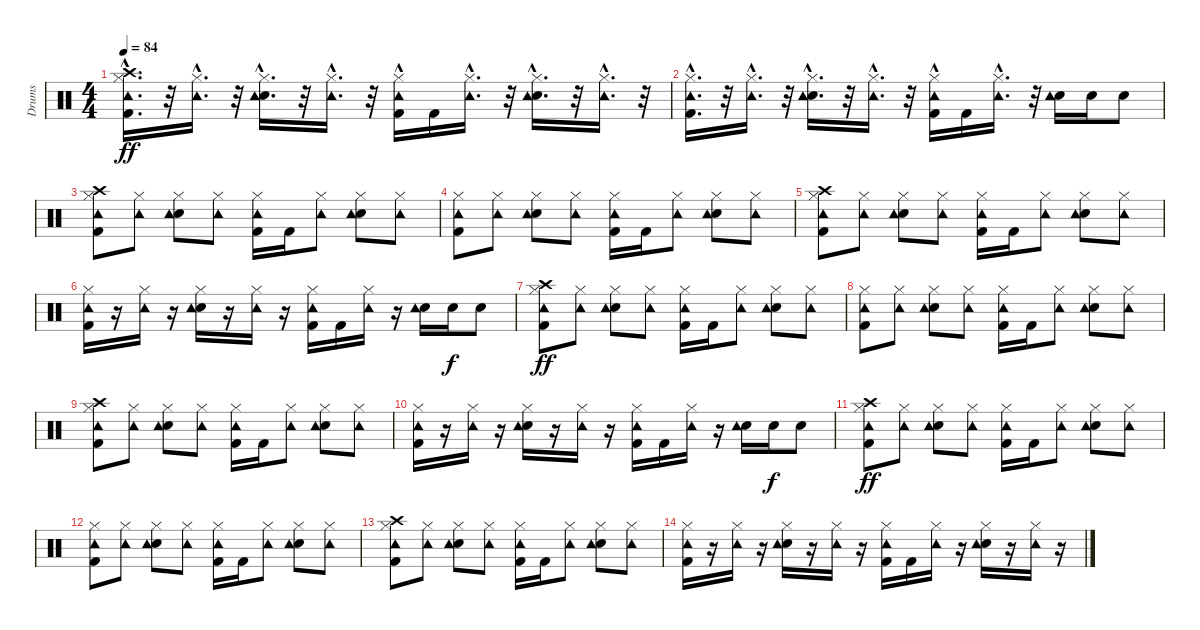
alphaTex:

\track ("Drums" "Drums") {instrument percussion}
\staff {score}
\articulation defaults
\ts (4 4)
\tempo 84
\clef neutral
\ks c
("Kick (hit) 2" "Hi-Hat (closed)" "Crash high (hit)" "Tambourine (hit)"{hac}).16{d dy ff} r.32 ("Hi-Hat (closed)" "Tambourine (hit)"{hac}).16{d} r.32 ("Snare (hit) 2" "Hi-Hat (closed)" "Tambourine (hit)"{hac}).16{d} r.32 ("Hi-Hat (closed)" "Tambourine (hit)"{hac}).16{d} r.32 ("Kick (hit) 2" "Hi-Hat (closed)" "Tambourine (hit)"{hac}).16 "Kick (hit) 2".16 ("Hi-Hat (closed)" "Tambourine (hit)"{hac}).16{d} r.32 ("Snare (hit) 2" "Hi-Hat (closed)" "Tambourine (hit)"{hac}).16{d} r.32 ("Hi-Hat (closed)" "Tambourine (hit)"{hac}).16{d} r.32 |
("Kick (hit) 2" "Hi-Hat (closed)" "Tambourine (hit)"{hac}).16{d} r.32 ("Hi-Hat (closed)" "Tambourine (hit)"{hac}).16{d} r.32 ("Snare (hit) 2" "Hi-Hat (closed)" "Tambourine (hit)"{hac}).16{d} r.32 ("Hi-Hat (closed)" "Tambourine (hit)"{hac}).16{d} r.32 ("Kick (hit) 2" "Hi-Hat (closed)" "Tambourine (hit)"{hac}).16 "Kick (hit) 2".16 ("Hi-Hat (closed)" "Tambourine (hit)"{hac}).16{d} r.32 ("Snare (hit) 2" "Tambourine (hit)").16 "Snare (hit) 2".16 "Snare (hit) 2".8 |
("Kick (hit) 2" "Hi-Hat (closed)" "Crash high (hit)" "Tambourine (hit)").8 ("Hi-Hat (closed)" "Tambourine (hit)").8 ("Snare (hit) 2" "Hi-Hat (closed)" "Tambourine (hit)").8 ("Hi-Hat (closed)" "Tambourine (hit)").8 ("Kick (hit) 2" "Hi-Hat (closed)" "Tambourine (hit)").16 "Kick (hit) 2".16 ("Hi-Hat (closed)" "Tambourine (hit)").8 ("Snare (hit) 2" "Hi-Hat (closed)" "Tambourine (hit)").8 ("Tambourine (hit)" "Hi-Hat (closed)").8 |
("Kick (hit) 2" "Hi-Hat (closed)" "Tambourine (hit)").8 ("Hi-Hat (closed)" "Tambourine (hit)").8 ("Snare (hit) 2" "Hi-Hat (closed)" "Tambourine (hit)").8 ("Hi-Hat (closed)" "Tambourine (hit)").8 ("Kick (hit) 2" "Hi-Hat (closed)" "Tambourine (hit)").16 "Kick (hit) 2".16 ("Hi-Hat (closed)" "Tambourine (hit)").8 ("Snare (hit) 2" "Hi-Hat (closed)" "Tambourine (hit)").8 ("Tambourine (hit)" "Hi-Hat (closed)").8 |
("Kick (hit) 2" "Hi-Hat (closed)" "Crash high (hit)" "Tambourine (hit)").8{volume 12} ("Hi-Hat (closed)" "Tambourine (hit)").8{volume 12} ("Snare (hit) 2" "Hi-Hat (closed)" "Tambourine (hit)").8{volume 12} ("Hi-Hat (closed)" "Tambourine (hit)").8{volume 12} ("Kick (hit) 2" "Hi-Hat (closed)" "Tambourine (hit)").16{volume 12} "Kick (hit) 2".16{volume 11} ("Hi-Hat (closed)" "Tambourine (hit)").8{volume 11} ("Snare (hit) 2" "Hi-Hat (closed)" "Tambourine (hit)").8{volume 11} ("Tambourine (hit)" "Hi-Hat (closed)").8{volume 11} |
("Kick (hit) 2" "Hi-Hat (closed)" "Tambourine (hit)").16{volume 11} r.16 ("Hi-Hat (closed)" "Tambourine (hit)").16{volume 11} r.16 ("Snare (hit) 2" "Hi-Hat (closed)" "Tambourine (hit)").16{volume 10} r.16 ("Hi-Hat (closed)" "Tambourine (hit)").16{volume 10} r.16 ("Kick (hit) 2" "Hi-Hat (closed)" "Tambourine (hit)").16{volume 10} "Kick (hit) 2".16{volume 10} ("Hi-Hat (closed)" "Tambourine (hit)").16 r.16 ("Snare (hit) 2" "Tambourine (hit)").16{volume 10} "Snare (hit) 2".16{dy f volume 10} "Snare (hit) 2".8{volume 10} |
("Kick (hit) 2" "Hi-Hat (closed)" "Crash high (hit)" "Tambourine (hit)").8{dy ff volume 10} ("Hi-Hat (closed)" "Tambourine (hit)").8{volume 10} ("Snare (hit) 2" "Hi-Hat (closed)" "Tambourine (hit)").8{volume 9} ("Hi-Hat (closed)" "Tambourine (hit)").8{volume 9} ("Kick (hit) 2" "Hi-Hat (closed)" "Tambourine (hit)").16{volume 9} "Kick (hit) 2".16 ("Hi-Hat (closed)" "Tambourine (hit)").8{volume 9} ("Snare (hit) 2" "Hi-Hat (closed)" "Tambourine (hit)").8{volume 9} ("Tambourine (hit)" "Hi-Hat (closed)").8{volume 9} |
("Kick (hit) 2" "Hi-Hat (closed)" "Tambourine (hit)").8{volume 8} ("Hi-Hat (closed)" "Tambourine (hit)").8{volume 8} ("Snare (hit) 2" "Hi-Hat (closed)" "Tambourine (hit)").8{volume 8} ("Hi-Hat (closed)" "Tambourine (hit)").8{volume 8} ("Kick (hit) 2" "Hi-Hat (closed)" "Tambourine (hit)").16{volume 8} "Kick (hit) 2".16{volume 8} ("Hi-Hat (closed)" "Tambourine (hit)").8 ("Snare (hit) 2" "Hi-Hat (closed)" "Tambourine (hit)").8{volume 8} ("Tambourine (hit)" "Hi-Hat (closed)").8{volume 7} |
("Kick (hit) 2" "Hi-Hat (closed)" "Crash high (hit)" "Tambourine (hit)").8{volume 7} ("Hi-Hat (closed)" "Tambourine (hit)").8{volume 7} ("Snare (hit) 2" "Hi-Hat (closed)" "Tambourine (hit)").8{volume 7} ("Hi-Hat (closed)" "Tambourine (hit)").8{volume 7} ("Kick (hit) 2" "Hi-Hat (closed)" "Tambourine (hit)").16{volume 7} "Kick (hit) 2".16 ("Hi-Hat (closed)" "Tambourine (hit)").8{volume 6} ("Snare (hit) 2" "Hi-Hat (closed)" "Tambourine (hit)").8{volume 6} ("Tambourine (hit)" "Hi-Hat (closed)").8{volume 6} |
("Kick (hit) 2" "Hi-Hat (closed)" "Tambourine (hit)").16{volume 6} r.16 ("Hi-Hat (closed)" "Tambourine (hit)").16{volume 6} r.16 ("Snare (hit) 2" "Hi-Hat (closed)" "Tambourine (hit)").16{volume 6} r.16 ("Hi-Hat (closed)" "Tambourine (hit)").16{volume 6} r.16 ("Kick (hit) 2" "Hi-Hat (closed)" "Tambourine (hit)").16{volume 6} "Kick (hit) 2".16{volume 5} ("Hi-Hat (closed)" "Tambourine (hit)").16{volume 5} r.16 ("Snare (hit) 2" "Tambourine (hit)").16{volume 5} "Snare (hit) 2".16{dy f} "Snare (hit) 2".8{volume 5} |
("Kick (hit) 2" "Hi-Hat (closed)" "Crash high (hit)" "Tambourine (hit)").8{dy ff volume 5} ("Hi-Hat (closed)" "Tambourine (hit)").8{volume 5} ("Snare (hit) 2" "Hi-Hat (closed)" "Tambourine (hit)").8{volume 4} ("Hi-Hat (closed)" "Tambourine (hit)").8{volume 4} ("Kick (hit) 2" "Hi-Hat (closed)" "Tambourine (hit)").16{volume 4} "Kick (hit) 2".16{volume 4} ("Hi-Hat (closed)" "Tambourine (hit)").8 ("Snare (hit) 2" "Hi-Hat (closed)" "Tambourine (hit)").8{volume 4} ("Tambourine (hit)" "Hi-Hat (closed)").8{volume 4} |
("Kick (hit) 2" "Hi-Hat (closed)" "Tambourine (hit)").8{volume 4} ("Hi-Hat (closed)" "Tambourine (hit)").8{volume 4} ("Snare (hit) 2" "Hi-Hat (closed)" "Tambourine (hit)").8{volume 3} ("Hi-Hat (closed)" "Tambourine (hit)").8{volume 3} ("Kick (hit) 2" "Hi-Hat (closed)" "Tambourine (hit)").16{volume 3} "Kick (hit) 2".16 ("Hi-Hat (closed)" "Tambourine (hit)").8{volume 3} ("Snare (hit) 2" "Hi-Hat (closed)" "Tambourine (hit)").8{volume 3} ("Tambourine (hit)" "Hi-Hat (closed)").8{volume 3} |
("Kick (hit) 2" "Hi-Hat (closed)" "Crash high (hit)" "Tambourine (hit)").8{volume 2} ("Hi-Hat (closed)" "Tambourine (hit)").8{volume 2} ("Snare (hit) 2" "Hi-Hat (closed)" "Tambourine (hit)").8{volume 2} ("Hi-Hat (closed)" "Tambourine (hit)").8{volume 2} ("Kick (hit) 2" "Hi-Hat (closed)" "Tambourine (hit)").16{volume 2} "Kick (hit) 2".16{volume 2} ("Hi-Hat (closed)" "Tambourine (hit)").8 ("Snare (hit) 2" "Hi-Hat (closed)" "Tambourine (hit)").8{volume 2} ("Tambourine (hit)" "Hi-Hat (closed)").8{volume 1} |
("Kick (hit) 2" "Hi-Hat (closed)" "Tambourine (hit)").16{volume 1} r.16 ("Hi-Hat (closed)" "Tambourine (hit)").16{volume 1} r.16 ("Snare (hit) 2" "Hi-Hat (closed)" "Tambourine (hit)").16{volume 1} r.16 ("Hi-Hat (closed)" "Tambourine (hit)").16{volume 1} r.16 ("Kick (hit) 2" "Hi-Hat (closed)" "Tambourine (hit)").16{volume 1} "Kick (hit) 2".16 ("Hi-Hat (closed)" "Tambourine (hit)").16{volume 0} r.16 ("Snare (hit) 2" "Hi-Hat (closed)" "Tambourine (hit)").16{volume 0} r.16 ("Hi-Hat (closed)" "Tambourine (hit)").16{volume 0} r.16
